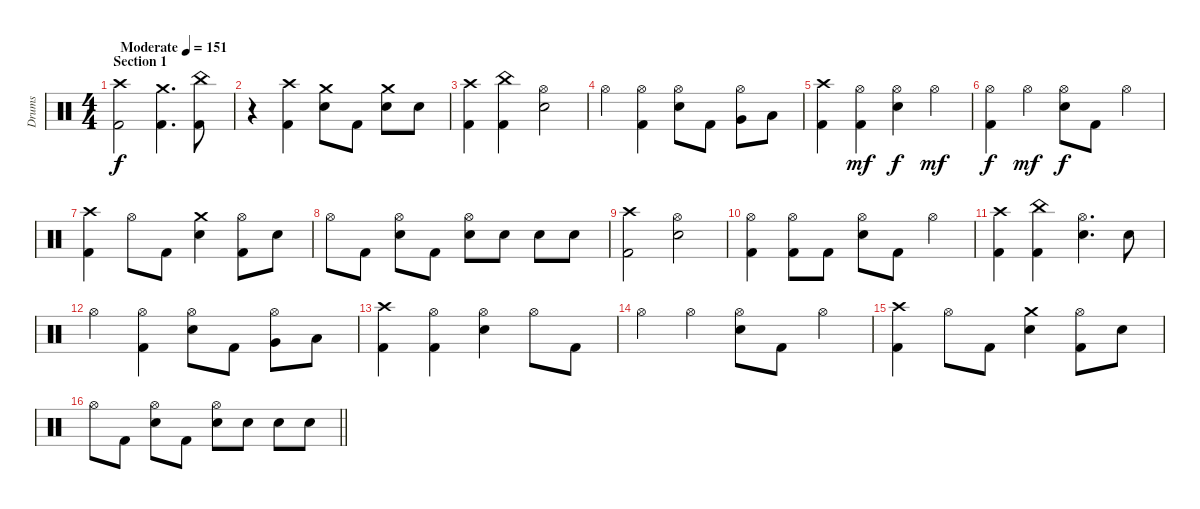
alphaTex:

\track ("Drums" "Drums") {instrument percussion}
\staff {score}
\articulation defaults
\ts (4 4)
\section ("" "Section 1")
\tempo (151 "Moderate")
\clef neutral
\ks c
("Crash high (hit)" "Kick (hit) 2").2{dy f} ("Crash medium (hit)" "Kick (hit) 2").4{d} ("China (hit)" "Kick (hit) 2").8 |
r.4 ("Crash high (hit)" "Kick (hit) 2").4 ("Crash medium (hit)" "Snare (hit) 2").8 "Kick (hit) 2".8 ("Crash medium (hit)" "Snare (hit) 2").8 "Snare (hit) 2".8 |
("Crash high (hit)" "Kick (hit) 2").4 ("China (hit)" "Kick (hit) 2").4 ("Hi-Hat (open)" "Snare (hit) 2").2 |
"Hi-Hat (open)".4 ("Hi-Hat (open)" "Kick (hit) 2").4 ("Hi-Hat (open)" "Snare (hit) 2").8 "Kick (hit) 2".8 ("Hi-Hat (open)" "Very Low Tom (hit)").8 "Low Floor Tom (hit)".8 |
("Crash high (hit)" "Kick (hit) 2").4 ("Hi-Hat (open)" "Kick (hit) 2").4{dy mf} ("Hi-Hat (open)" "Snare (hit) 2").4{dy f} "Hi-Hat (open)".4{dy mf} |
("Hi-Hat (open)" "Kick (hit) 2").4{dy f} "Hi-Hat (open)".4{dy mf} ("Hi-Hat (open)" "Snare (hit) 2").8{dy f} "Kick (hit) 2".8 "Hi-Hat (open)".4 |
("Crash high (hit)" "Kick (hit) 2").4 "Hi-Hat (open)".8 "Kick (hit) 2".8 ("Crash medium (hit)" "Snare (hit) 2").4 ("Hi-Hat (open)" "Kick (hit) 2").8 "Snare (hit) 2".8 |
"Hi-Hat (open)".8 "Kick (hit) 2".8 ("Hi-Hat (open)" "Snare (hit) 2").8 "Kick (hit) 2".8 ("Hi-Hat (open)" "Snare (hit) 2").8 "Snare (hit) 2".8 "Snare (hit) 2".8 "Snare (hit) 2".8 |
("Crash high (hit)" "Kick (hit) 2").2 ("Hi-Hat (open)" "Snare (hit) 2").2 |
("Hi-Hat (open)" "Kick (hit) 2").4 ("Hi-Hat (open)" "Kick (hit) 2").8 "Kick (hit) 2".8 ("Hi-Hat (open)" "Snare (hit) 2").8 "Kick (hit) 2".8 "Hi-Hat (open)".4 |
("Crash high (hit)" "Kick (hit) 2").4 ("China (hit)" "Kick (hit) 2").4 ("Hi-Hat (open)" "Snare (hit) 2").4{d} "Snare (hit) 2".8 |
"Hi-Hat (open)".4 ("Hi-Hat (open)" "Kick (hit) 2").4 ("Hi-Hat (open)" "Snare (hit) 2").8 "Kick (hit) 2".8 ("Hi-Hat (open)" "Very Low Tom (hit)").8 "Low Floor Tom (hit)".8 |
("Crash high (hit)" "Kick (hit) 2").4 ("Hi-Hat (open)" "Kick (hit) 2").4 ("Hi-Hat (open)" "Snare (hit) 2").4 "Hi-Hat (open)".8 "Kick (hit) 2".8 |
"Hi-Hat (open)".4 "Hi-Hat (open)".4 ("Hi-Hat (open)" "Snare (hit) 2").8 "Kick (hit) 2".8 "Hi-Hat (open)".4 |
("Crash high (hit)" "Kick (hit) 2").4 "Hi-Hat (open)".8 "Kick (hit) 2".8 ("Crash medium (hit)" "Snare (hit) 2").4 ("Hi-Hat (open)" "Kick (hit) 2").8 "Snare (hit) 2".8 |
\barLineRight lightlight "Hi-Hat (open)".8 "Kick (hit) 2".8
("Hi-Hat (open)" "Snare (hit) 2").8 "Kick (hit) 2".8 ("Hi-Hat (open)" "Snare (hit) 2").8 "Snare (hit) 2".8 "Snare (hit) 2".8 "Snare (hit) 2".8
